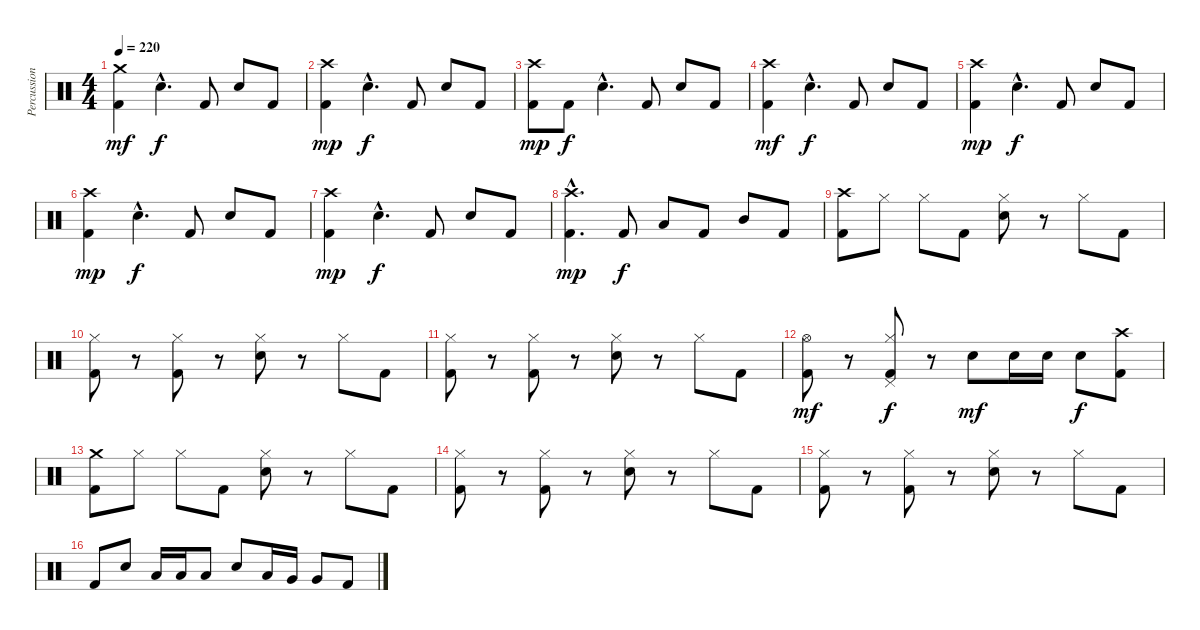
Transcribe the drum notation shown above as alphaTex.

\track ("Percussion" "Percussion") {instrument percussion}
\staff {score}
\articulation defaults
\ts (4 4)
\tempo 220
\clef neutral
\ks c
("Crash medium (hit)" "Kick (hit) 2").4{dy mf} "Electric Snare (hit)"{hac}.4{d dy f} "Kick (hit) 2".8 "Electric Snare (hit)".8 "Kick (hit) 2".8 |
("Crash high (hit)" "Kick (hit) 2").4{dy mp} "Electric Snare (hit)"{hac}.4{d dy f} "Kick (hit) 2".8 "Electric Snare (hit)".8 "Kick (hit) 2".8 |
("Crash high (hit)" "Kick (hit) 2").8{dy mp} "Kick (hit) 2".8{dy f} "Electric Snare (hit)"{hac}.4{d} "Kick (hit) 2".8 "Electric Snare (hit)".8 "Kick (hit) 2".8 |
("Crash high (hit)" "Kick (hit) 2").4{dy mf} "Electric Snare (hit)"{hac}.4{d dy f} "Kick (hit) 2".8 "Electric Snare (hit)".8 "Kick (hit) 2".8 |
("Crash high (hit)" "Kick (hit) 2").4{dy mp} "Electric Snare (hit)"{hac}.4{d dy f} "Kick (hit) 2".8 "Electric Snare (hit)".8 "Kick (hit) 2".8 |
("Crash high (hit)" "Kick (hit) 2").4{dy mp} "Electric Snare (hit)"{hac}.4{d dy f} "Kick (hit) 2".8 "Electric Snare (hit)".8 "Kick (hit) 2".8 |
("Crash high (hit)" "Kick (hit) 2").4{dy mp} "Electric Snare (hit)"{hac}.4{d dy f} "Kick (hit) 2".8 "Electric Snare (hit)".8 "Kick (hit) 2".8 |
("Crash high (hit)"{hac} "Kick (hit) 2"{hac}).4{d dy mp} "Kick (hit) 2".8{dy f} "Low Tom (hit)".8 "Kick (hit) 2".8 "Mid Tom (hit)".8 "Kick (hit) 2".8 |
("Crash high (hit)" "Kick (hit) 2").8 "Hi-Hat (closed)".8 "Hi-Hat (closed)".8 "Kick (hit) 2".8 ("Hi-Hat (closed)" "Electric Snare (hit)").8 r.8 "Hi-Hat (closed)".8 "Kick (hit) 2".8 |
("Hi-Hat (closed)" "Kick (hit) 2").8 r.8 ("Hi-Hat (closed)" "Kick (hit) 2").8 r.8 ("Hi-Hat (closed)" "Electric Snare (hit)").8 r.8 "Hi-Hat (closed)".8 "Kick (hit) 2".8 |
("Hi-Hat (closed)" "Kick (hit) 2").8 r.8 ("Hi-Hat (closed)" "Kick (hit) 2").8 r.8 ("Hi-Hat (closed)" "Electric Snare (hit)").8 r.8 "Hi-Hat (closed)".8 "Kick (hit) 2".8 |
("Hi-Hat (open)" "Kick (hit) 2").8{dy mf} r.8 ("Hi-Hat (closed)" "Pedal Hi-Hat (hit)" "Kick (hit) 2").8{dy f} r.8 "Electric Snare (hit)".8{dy mf} "Electric Snare (hit)".16 "Electric Snare (hit)".16 "Electric Snare (hit)".8{dy f} ("Crash high (hit)" "Kick (hit) 2").8 |
("Crash medium (hit)" "Kick (hit) 2").8 "Hi-Hat (closed)".8 "Hi-Hat (closed)".8 "Kick (hit) 2".8 ("Hi-Hat (closed)" "Electric Snare (hit)").8 r.8 "Hi-Hat (closed)".8 "Kick (hit) 2".8 |
("Hi-Hat (closed)" "Kick (hit) 2").8 r.8 ("Hi-Hat (closed)" "Kick (hit) 2").8 r.8 ("Hi-Hat (closed)" "Electric Snare (hit)").8 r.8 "Hi-Hat (closed)".8 "Kick (hit) 2".8 |
("Hi-Hat (closed)" "Kick (hit) 2").8 r.8 ("Hi-Hat (closed)" "Kick (hit) 2").8 r.8 ("Hi-Hat (closed)" "Electric Snare (hit)").8 r.8 "Hi-Hat (closed)".8 "Kick (hit) 2".8 |
"Kick (hit) 2".8 "Electric Snare (hit)".8 "Low Tom (hit)".16 "Low Tom (hit)".16 "Low Tom (hit)".8 "Electric Snare (hit)".8 "Low Tom (hit)".16 "Very Low Tom (hit)".16 "Very Low Tom (hit)".8 "Kick (hit) 2".8
